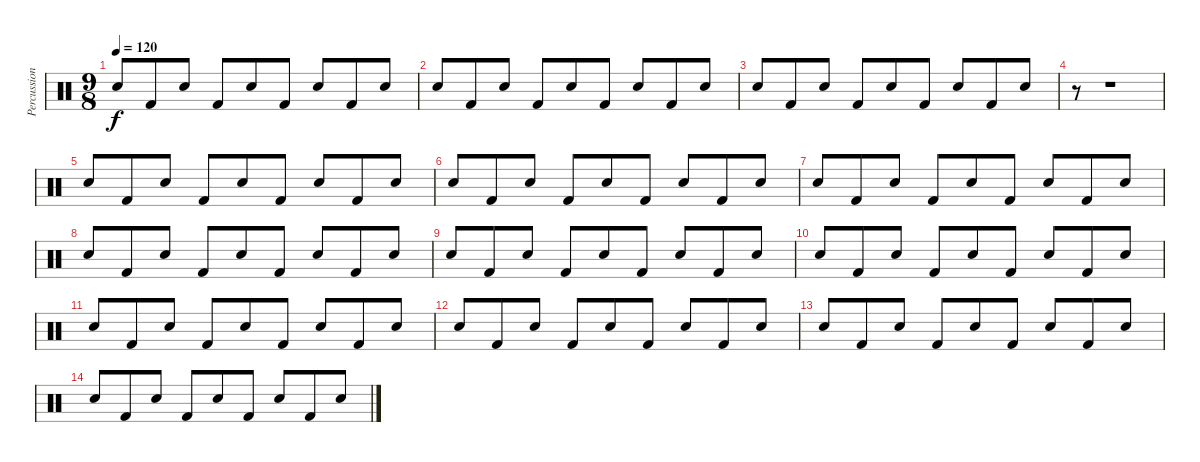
\track ("Percussion" "Percussion") {instrument percussion}
\staff {score}
\articulation defaults
\ts (9 8)
\tempo 120
\clef neutral
\ks c "Electric Snare (hit)".8{dy f} "Kick (hit) 2".8 "Electric Snare (hit)".8 "Kick (hit) 2".8 "Electric Snare (hit)".8 "Kick (hit) 2".8 "Electric Snare (hit)".8 "Kick (hit) 2".8 "Electric Snare (hit)".8
|
"Electric Snare (hit)".8 "Kick (hit) 2".8 "Electric Snare (hit)".8 "Kick (hit) 2".8 "Electric Snare (hit)".8 "Kick (hit) 2".8 "Electric Snare (hit)".8 "Kick (hit) 2".8 "Electric Snare (hit)".8 |
"Electric Snare (hit)".8 "Kick (hit) 2".8 "Electric Snare (hit)".8 "Kick (hit) 2".8 "Electric Snare (hit)".8 "Kick (hit) 2".8 "Electric Snare (hit)".8 "Kick (hit) 2".8 "Electric Snare (hit)".8 |
r.8 r.1 |
"Electric Snare (hit)".8 "Kick (hit) 2".8 "Electric Snare (hit)".8 "Kick (hit) 2".8 "Electric Snare (hit)".8 "Kick (hit) 2".8 "Electric Snare (hit)".8 "Kick (hit) 2".8 "Electric Snare (hit)".8 |
"Electric Snare (hit)".8 "Kick (hit) 2".8 "Electric Snare (hit)".8 "Kick (hit) 2".8 "Electric Snare (hit)".8 "Kick (hit) 2".8 "Electric Snare (hit)".8 "Kick (hit) 2".8 "Electric Snare (hit)".8 |
"Electric Snare (hit)".8 "Kick (hit) 2".8 "Electric Snare (hit)".8 "Kick (hit) 2".8 "Electric Snare (hit)".8 "Kick (hit) 2".8 "Electric Snare (hit)".8 "Kick (hit) 2".8 "Electric Snare (hit)".8 |
"Electric Snare (hit)".8 "Kick (hit) 2".8 "Electric Snare (hit)".8 "Kick (hit) 2".8 "Electric Snare (hit)".8 "Kick (hit) 2".8 "Electric Snare (hit)".8 "Kick (hit) 2".8 "Electric Snare (hit)".8 |
"Electric Snare (hit)".8 "Kick (hit) 2".8 "Electric Snare (hit)".8 "Kick (hit) 2".8 "Electric Snare (hit)".8 "Kick (hit) 2".8 "Electric Snare (hit)".8 "Kick (hit) 2".8 "Electric Snare (hit)".8 |
"Electric Snare (hit)".8 "Kick (hit) 2".8 "Electric Snare (hit)".8 "Kick (hit) 2".8 "Electric Snare (hit)".8 "Kick (hit) 2".8 "Electric Snare (hit)".8 "Kick (hit) 2".8 "Electric Snare (hit)".8 |
"Electric Snare (hit)".8 "Kick (hit) 2".8 "Electric Snare (hit)".8 "Kick (hit) 2".8 "Electric Snare (hit)".8 "Kick (hit) 2".8 "Electric Snare (hit)".8 "Kick (hit) 2".8 "Electric Snare (hit)".8 |
"Electric Snare (hit)".8 "Kick (hit) 2".8 "Electric Snare (hit)".8 "Kick (hit) 2".8 "Electric Snare (hit)".8 "Kick (hit) 2".8 "Electric Snare (hit)".8 "Kick (hit) 2".8 "Electric Snare (hit)".8 |
"Electric Snare (hit)".8 "Kick (hit) 2".8 "Electric Snare (hit)".8 "Kick (hit) 2".8 "Electric Snare (hit)".8 "Kick (hit) 2".8 "Electric Snare (hit)".8 "Kick (hit) 2".8 "Electric Snare (hit)".8 |
"Electric Snare (hit)".8 "Kick (hit) 2".8 "Electric Snare (hit)".8 "Kick (hit) 2".8 "Electric Snare (hit)".8 "Kick (hit) 2".8 "Electric Snare (hit)".8 "Kick (hit) 2".8 "Electric Snare (hit)".8
